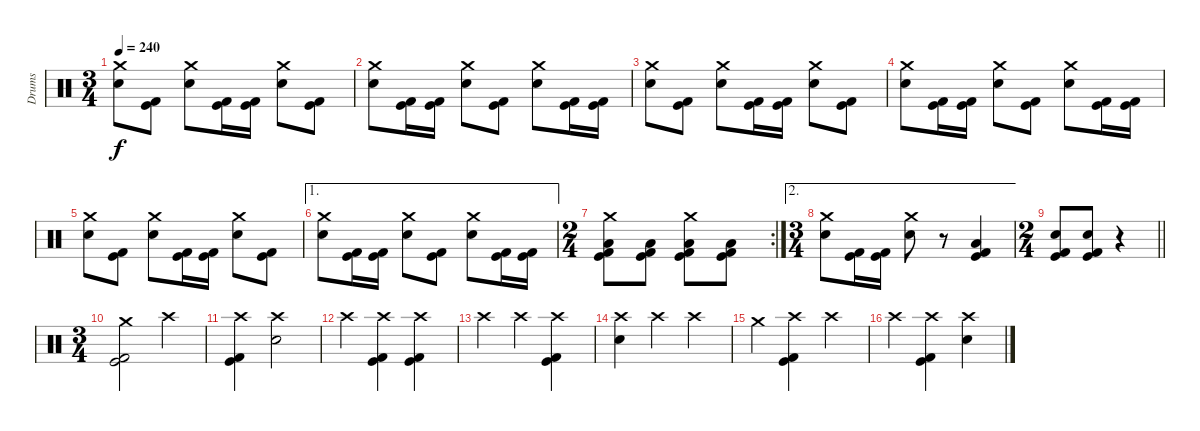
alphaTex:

\track ("Drums" "Drums") {instrument percussion}
\staff {score}
\articulation defaults
\ts (3 4)
\tempo 240
\clef neutral
\ks c
("Crash medium (hit)" "Electric Snare (hit)").8{dy f} ("Kick (hit)" "Kick (hit) 2").8 ("Crash medium (hit)" "Electric Snare (hit)").8 ("Kick (hit)" "Kick (hit) 2").16 ("Kick (hit)" "Kick (hit) 2").16 ("Crash medium (hit)" "Electric Snare (hit)").8 ("Kick (hit)" "Kick (hit) 2").8 |
("Crash medium (hit)" "Electric Snare (hit)").8 ("Kick (hit)" "Kick (hit) 2").16 ("Kick (hit)" "Kick (hit) 2").16 ("Crash medium (hit)" "Electric Snare (hit)").8 ("Kick (hit)" "Kick (hit) 2").8 ("Crash medium (hit)" "Electric Snare (hit)").8 ("Kick (hit)" "Kick (hit) 2").16 ("Kick (hit)" "Kick (hit) 2").16 |
("Crash medium (hit)" "Electric Snare (hit)").8 ("Kick (hit)" "Kick (hit) 2").8 ("Crash medium (hit)" "Electric Snare (hit)").8 ("Kick (hit)" "Kick (hit) 2").16 ("Kick (hit)" "Kick (hit) 2").16 ("Crash medium (hit)" "Electric Snare (hit)").8 ("Kick (hit)" "Kick (hit) 2").8 |
("Crash medium (hit)" "Electric Snare (hit)").8 ("Kick (hit)" "Kick (hit) 2").16 ("Kick (hit)" "Kick (hit) 2").16 ("Crash medium (hit)" "Electric Snare (hit)").8 ("Kick (hit)" "Kick (hit) 2").8 ("Crash medium (hit)" "Electric Snare (hit)").8 ("Kick (hit)" "Kick (hit) 2").16 ("Kick (hit)" "Kick (hit) 2").16 |
("Crash medium (hit)" "Electric Snare (hit)").8 ("Kick (hit)" "Kick (hit) 2").8 ("Crash medium (hit)" "Electric Snare (hit)").8 ("Kick (hit)" "Kick (hit) 2").16 ("Kick (hit)" "Kick (hit) 2").16 ("Crash medium (hit)" "Electric Snare (hit)").8 ("Kick (hit)" "Kick (hit) 2").8 |
\ae 1
("Crash medium (hit)" "Electric Snare (hit)").8 ("Kick (hit)" "Kick (hit) 2").16 ("Kick (hit)" "Kick (hit) 2").16 ("Crash medium (hit)" "Electric Snare (hit)").8 ("Kick (hit)" "Kick (hit) 2").8 ("Crash medium (hit)" "Electric Snare (hit)").8 ("Kick (hit)" "Kick (hit) 2").16 ("Kick (hit)" "Kick (hit) 2").16 |
\rc 2
\ts (2 4)
("Crash medium (hit)" "Low Tom (hit)" "Kick (hit)" "Kick (hit) 2").8 ("Low Tom (hit)" "Kick (hit)" "Kick (hit) 2").8 ("Crash medium (hit)" "Low Tom (hit)" "Kick (hit)" "Kick (hit) 2").8 ("Low Tom (hit)" "Kick (hit)" "Kick (hit) 2").8 |
\ae 2
\ts (3 4)
("Crash medium (hit)" "Electric Snare (hit)").8 ("Kick (hit)" "Kick (hit) 2").16 ("Kick (hit)" "Kick (hit) 2").16 ("Crash medium (hit)" "Electric Snare (hit)").8 r.8 ("Low Tom (hit)" "Kick (hit)" "Kick (hit) 2").4 |
\ts (2 4)
\barLineRight lightlight
("Electric Snare (hit)" "Kick (hit)" "Kick (hit) 2").8 ("Electric Snare (hit)" "Kick (hit)" "Kick (hit) 2").8 r.4 |
\ts (3 4)
\section ("" "")
("Crash medium (hit)" "Kick (hit)" "Kick (hit) 2").2 "Crash high (hit)".4 |
("Crash high (hit)" "Kick (hit)" "Kick (hit) 2").4 ("Crash high (hit)" "Electric Snare (hit)").2 |
"Crash high (hit)".4 ("Crash high (hit)" "Kick (hit)" "Kick (hit) 2").4 ("Crash high (hit)" "Kick (hit)" "Kick (hit) 2").4 |
"Crash high (hit)".4 "Crash high (hit)".4 ("Crash high (hit)" "Kick (hit)" "Kick (hit) 2").4 |
("Crash high (hit)" "Electric Snare (hit)").4 "Crash high (hit)".4 "Crash high (hit)".4 |
"Crash medium (hit)".4 ("Crash high (hit)" "Kick (hit)" "Kick (hit) 2").4 "Crash high (hit)".4 |
"Crash high (hit)".4 ("Crash high (hit)" "Kick (hit)" "Kick (hit) 2").4 ("Crash high (hit)" "Electric Snare (hit)").4
